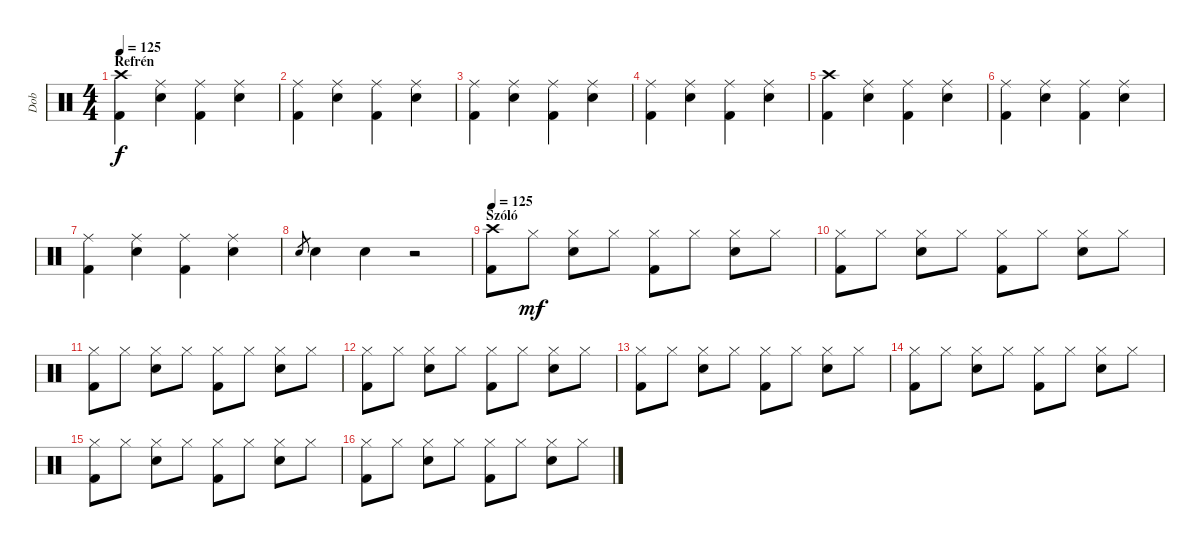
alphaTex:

\track ("Dob" "Dob") {instrument percussion}
\staff {score}
\articulation defaults
\ts (4 4)
\section ("" "Refrén")
\tempo 125
\clef neutral
\ks c
("Crash high (hit)" "Kick (hit) 2").4{dy f} ("Ride (middle)" "Electric Snare (hit)").4 ("Ride (middle)" "Kick (hit) 2").4 ("Ride (middle)" "Electric Snare (hit)").4 |
("Ride (middle)" "Kick (hit) 2").4 ("Ride (middle)" "Electric Snare (hit)").4 ("Ride (middle)" "Kick (hit) 2").4 ("Ride (middle)" "Electric Snare (hit)").4 |
("Ride (middle)" "Kick (hit) 2").4 ("Ride (middle)" "Electric Snare (hit)").4 ("Ride (middle)" "Kick (hit) 2").4 ("Ride (middle)" "Electric Snare (hit)").4 |
("Ride (middle)" "Kick (hit) 2").4 ("Ride (middle)" "Electric Snare (hit)").4 ("Ride (middle)" "Kick (hit) 2").4 ("Ride (middle)" "Electric Snare (hit)").4 |
("Crash high (hit)" "Kick (hit) 2").4 ("Ride (middle)" "Electric Snare (hit)").4 ("Ride (middle)" "Kick (hit) 2").4 ("Ride (middle)" "Electric Snare (hit)").4 |
("Ride (middle)" "Kick (hit) 2").4 ("Ride (middle)" "Electric Snare (hit)").4 ("Ride (middle)" "Kick (hit) 2").4 ("Ride (middle)" "Electric Snare (hit)").4 |
("Ride (middle)" "Kick (hit) 2").4 ("Ride (middle)" "Electric Snare (hit)").4 ("Ride (middle)" "Kick (hit) 2").4 ("Ride (middle)" "Electric Snare (hit)").4 |
"Electric Snare (hit)".8{gr} "Electric Snare (hit)".4 "Electric Snare (hit)".4 r.2 |
\section ("" "Szóló")
\tempo 125
("Crash high (hit)" "Kick (hit) 2").8 "Hi-Hat (closed)".8{dy mf} ("Hi-Hat (closed)" "Electric Snare (hit)").8 "Hi-Hat (closed)".8 ("Hi-Hat (closed)" "Kick (hit) 2").8 "Hi-Hat (closed)".8 ("Hi-Hat (closed)" "Electric Snare (hit)").8 "Hi-Hat (closed)".8 |
("Hi-Hat (closed)" "Kick (hit) 2").8 "Hi-Hat (closed)".8 ("Hi-Hat (closed)" "Electric Snare (hit)").8 "Hi-Hat (closed)".8 ("Hi-Hat (closed)" "Kick (hit) 2").8 "Hi-Hat (closed)".8 ("Hi-Hat (closed)" "Electric Snare (hit)").8 "Hi-Hat (closed)".8 |
("Hi-Hat (closed)" "Kick (hit) 2").8 "Hi-Hat (closed)".8 ("Hi-Hat (closed)" "Electric Snare (hit)").8 "Hi-Hat (closed)".8 ("Hi-Hat (closed)" "Kick (hit) 2").8 "Hi-Hat (closed)".8 ("Hi-Hat (closed)" "Electric Snare (hit)").8 "Hi-Hat (closed)".8 |
("Hi-Hat (closed)" "Kick (hit) 2").8 "Hi-Hat (closed)".8 ("Hi-Hat (closed)" "Electric Snare (hit)").8 "Hi-Hat (closed)".8 ("Hi-Hat (closed)" "Kick (hit) 2").8 "Hi-Hat (closed)".8 ("Hi-Hat (closed)" "Electric Snare (hit)").8 "Hi-Hat (closed)".8 |
("Hi-Hat (closed)" "Kick (hit) 2").8 "Hi-Hat (closed)".8 ("Hi-Hat (closed)" "Electric Snare (hit)").8 "Hi-Hat (closed)".8 ("Hi-Hat (closed)" "Kick (hit) 2").8 "Hi-Hat (closed)".8 ("Hi-Hat (closed)" "Electric Snare (hit)").8 "Hi-Hat (closed)".8 |
("Hi-Hat (closed)" "Kick (hit) 2").8 "Hi-Hat (closed)".8 ("Hi-Hat (closed)" "Electric Snare (hit)").8 "Hi-Hat (closed)".8 ("Hi-Hat (closed)" "Kick (hit) 2").8 "Hi-Hat (closed)".8 ("Hi-Hat (closed)" "Electric Snare (hit)").8 "Hi-Hat (closed)".8 |
("Hi-Hat (closed)" "Kick (hit) 2").8 "Hi-Hat (closed)".8 ("Hi-Hat (closed)" "Electric Snare (hit)").8 "Hi-Hat (closed)".8 ("Hi-Hat (closed)" "Kick (hit) 2").8 "Hi-Hat (closed)".8 ("Hi-Hat (closed)" "Electric Snare (hit)").8 "Hi-Hat (closed)".8 |
("Hi-Hat (closed)" "Kick (hit) 2").8 "Hi-Hat (closed)".8 ("Hi-Hat (closed)" "Electric Snare (hit)").8 "Hi-Hat (closed)".8 ("Hi-Hat (closed)" "Kick (hit) 2").8 "Hi-Hat (closed)".8 ("Hi-Hat (closed)" "Electric Snare (hit)").8 "Hi-Hat (closed)".8
